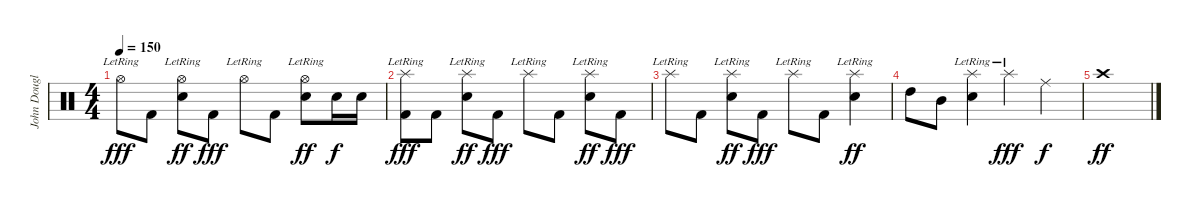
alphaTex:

\track ("John Douglas (Drums)" "John Dougl") {instrument percussion}
\staff {score}
\articulation defaults
\ts (4 4)
\tempo 150
\clef neutral
\ks c "Hi-Hat (open)"{lr}.8{dy fff} "Kick (hit) 2".8
("Hi-Hat (open)"{lr} "Snare (hit) 2").8{dy ff} "Kick (hit) 2".8{dy fff} "Hi-Hat (open)"{lr}.8 "Kick (hit) 2".8 ("Hi-Hat (open)"{lr} "Snare (hit) 2").8{dy ff} "Snare (hit) 2".16{dy f} "Snare (hit) 2".16 |
("Splash (hit)"{lr} "Kick (hit) 2").8{dy fff} "Kick (hit) 2".8 ("Splash (hit)"{lr} "Snare (hit) 2").8{dy ff} "Kick (hit) 2".8{dy fff} "Splash (hit)"{lr}.8 "Kick (hit) 2".8 ("Splash (hit)"{lr} "Snare (hit) 2").8{dy ff} "Kick (hit) 2".8{dy fff} |
"Splash (hit)"{lr}.8 "Kick (hit) 2".8 ("Splash (hit)"{lr} "Snare (hit) 2").8{dy ff} "Kick (hit) 2".8{dy fff} "Splash (hit)"{lr}.8 "Kick (hit) 2".8 ("Splash (hit)"{lr} "Snare (hit) 2").4{dy ff} |
"High Tom (hit)".8 "Mid Tom (hit)".8 ("Splash (hit)"{lr} "Snare (hit) 2").4 "Splash (hit)"{lr}.4{dy fff} "Ride (middle)".4{dy f} |
"Crash high (hit)".1{dy ff}
